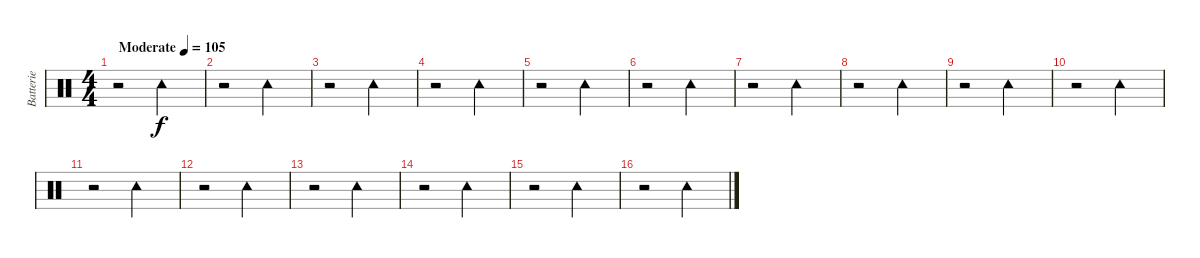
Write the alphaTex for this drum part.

\track ("Batterie" "Batterie") {instrument percussion}
\staff {score}
\articulation defaults
\ts (4 4)
\tempo (105 "Moderate")
\clef neutral
\ks c
r.2{dy f} "Tambourine (hit)".2 |
r.2 "Tambourine (hit)".2 |
r.2 "Tambourine (hit)".2 |
r.2 "Tambourine (hit)".2 |
r.2 "Tambourine (hit)".2 |
r.2 "Tambourine (hit)".2 |
r.2 "Tambourine (hit)".2 |
r.2 "Tambourine (hit)".2 |
r.2 "Tambourine (hit)".2 |
r.2 "Tambourine (hit)".2 |
r.2 "Tambourine (hit)".2 |
r.2 "Tambourine (hit)".2 |
r.2 "Tambourine (hit)".2 |
r.2 "Tambourine (hit)".2 |
r.2 "Tambourine (hit)".2 |
r.2 "Tambourine (hit)".2
